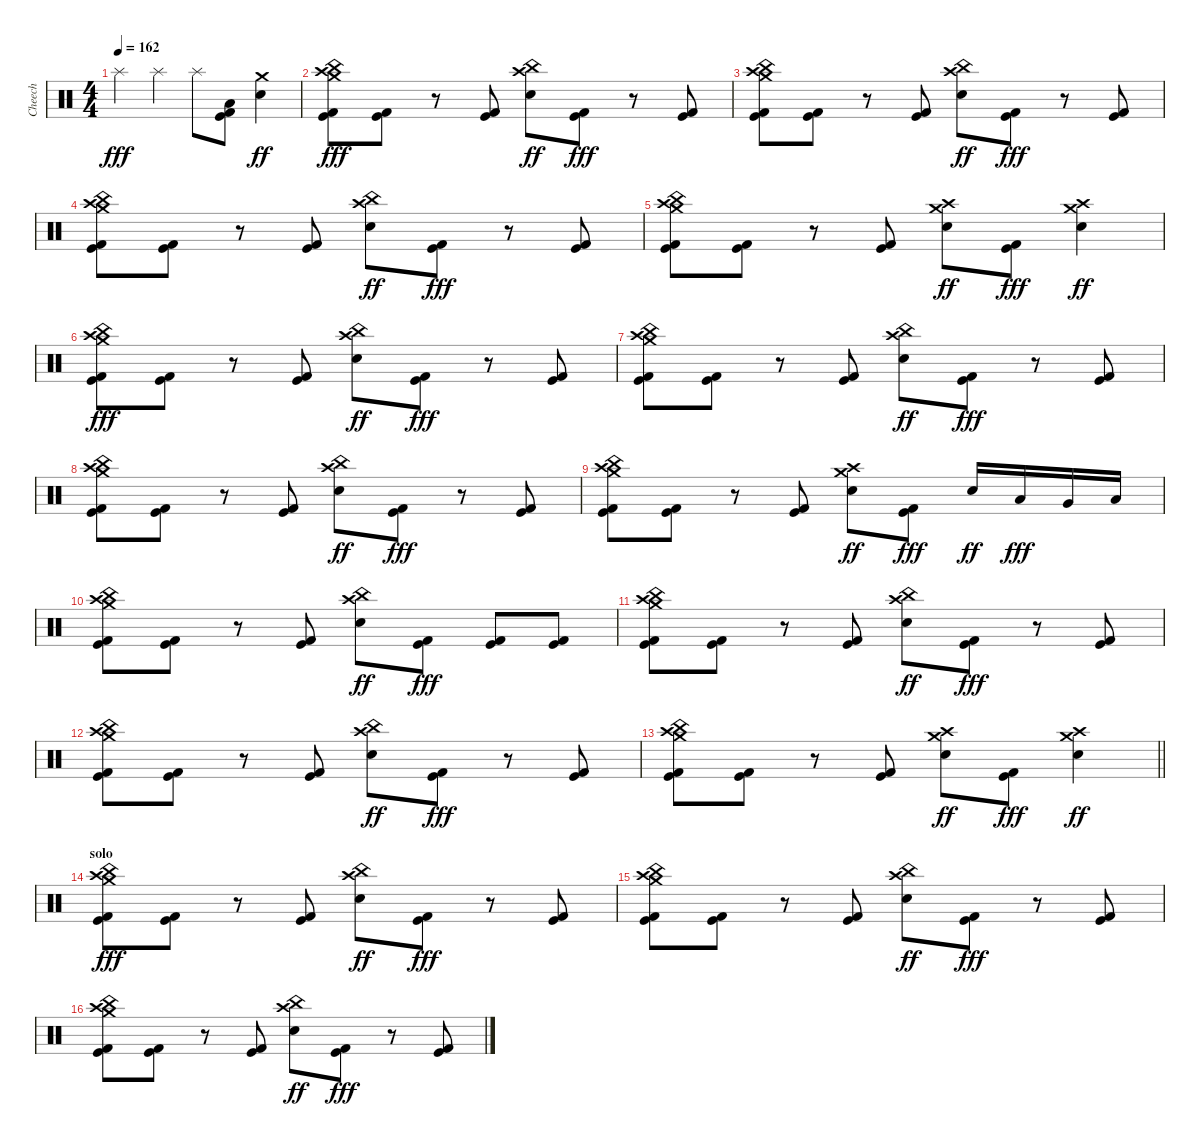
\track ("Cheech" "Cheech") {instrument percussion}
\staff {score}
\articulation defaults
\ts (4 4)
\tempo 162
\clef neutral
\ks c "Splash (hit)".4{dy fff} "Splash (hit)".4 "Splash (hit)".8
("Kick (hit) 2" "Low Floor Tom (hit)" "Kick (hit)").8 ("Crash medium (hit)" "Electric Snare (hit)").4{dy ff} |
("China (hit)" "Crash high (hit)" "Crash medium (hit)" "Kick (hit) 2" "Kick (hit)").8{dy fff} ("Kick (hit) 2" "Kick (hit)").8 r.8 ("Kick (hit) 2" "Kick (hit)").8 ("China (hit)" "Crash high (hit)" "Electric Snare (hit)").8{dy ff} ("Kick (hit) 2" "Kick (hit)").8{dy fff} r.8 ("Kick (hit) 2" "Kick (hit)").8 |
("China (hit)" "Crash high (hit)" "Crash medium (hit)" "Kick (hit) 2" "Kick (hit)").8 ("Kick (hit) 2" "Kick (hit)").8 r.8 ("Kick (hit) 2" "Kick (hit)").8 ("China (hit)" "Crash high (hit)" "Electric Snare (hit)").8{dy ff} ("Kick (hit) 2" "Kick (hit)").8{dy fff} r.8 ("Kick (hit) 2" "Kick (hit)").8 |
("China (hit)" "Crash high (hit)" "Crash medium (hit)" "Kick (hit) 2" "Kick (hit)").8 ("Kick (hit) 2" "Kick (hit)").8 r.8 ("Kick (hit) 2" "Kick (hit)").8 ("China (hit)" "Crash high (hit)" "Electric Snare (hit)").8{dy ff} ("Kick (hit) 2" "Kick (hit)").8{dy fff} r.8 ("Kick (hit) 2" "Kick (hit)").8 |
("China (hit)" "Crash high (hit)" "Crash medium (hit)" "Kick (hit) 2" "Kick (hit)").8 ("Kick (hit) 2" "Kick (hit)").8 r.8 ("Kick (hit) 2" "Kick (hit)").8 ("Crash medium (hit)" "Crash high (hit)" "Electric Snare (hit)").8{dy ff} ("Kick (hit) 2" "Kick (hit)").8{dy fff} ("Crash medium (hit)" "Crash high (hit)" "Electric Snare (hit)").4{dy ff} |
("China (hit)" "Crash high (hit)" "Crash medium (hit)" "Kick (hit) 2" "Kick (hit)").8{dy fff} ("Kick (hit) 2" "Kick (hit)").8 r.8 ("Kick (hit) 2" "Kick (hit)").8 ("China (hit)" "Crash high (hit)" "Electric Snare (hit)").8{dy ff} ("Kick (hit) 2" "Kick (hit)").8{dy fff} r.8 ("Kick (hit) 2" "Kick (hit)").8 |
("China (hit)" "Crash high (hit)" "Crash medium (hit)" "Kick (hit) 2" "Kick (hit)").8 ("Kick (hit) 2" "Kick (hit)").8 r.8 ("Kick (hit) 2" "Kick (hit)").8 ("China (hit)" "Crash high (hit)" "Electric Snare (hit)").8{dy ff} ("Kick (hit) 2" "Kick (hit)").8{dy fff} r.8 ("Kick (hit) 2" "Kick (hit)").8 |
("China (hit)" "Crash high (hit)" "Crash medium (hit)" "Kick (hit) 2" "Kick (hit)").8 ("Kick (hit) 2" "Kick (hit)").8 r.8 ("Kick (hit) 2" "Kick (hit)").8 ("China (hit)" "Crash high (hit)" "Electric Snare (hit)").8{dy ff} ("Kick (hit) 2" "Kick (hit)").8{dy fff} r.8 ("Kick (hit) 2" "Kick (hit)").8 |
("China (hit)" "Crash high (hit)" "Crash medium (hit)" "Kick (hit) 2" "Kick (hit)").8 ("Kick (hit) 2" "Kick (hit)").8 r.8 ("Kick (hit) 2" "Kick (hit)").8 ("Crash medium (hit)" "Crash high (hit)" "Electric Snare (hit)").8{dy ff} ("Kick (hit) 2" "Kick (hit)").8{dy fff} "Electric Snare (hit)".16{dy ff} "Low Tom (hit)".16{dy fff} "Very Low Tom (hit)".16 "Low Floor Tom (hit)".16 |
("China (hit)" "Crash high (hit)" "Crash medium (hit)" "Kick (hit) 2" "Kick (hit)").8 ("Kick (hit) 2" "Kick (hit)").8 r.8 ("Kick (hit) 2" "Kick (hit)").8 ("China (hit)" "Crash high (hit)" "Electric Snare (hit)").8{dy ff} ("Kick (hit) 2" "Kick (hit)").8{dy fff} ("Kick (hit) 2" "Kick (hit)").8 ("Kick (hit) 2" "Kick (hit)").8 |
("China (hit)" "Crash high (hit)" "Crash medium (hit)" "Kick (hit) 2" "Kick (hit)").8 ("Kick (hit) 2" "Kick (hit)").8 r.8 ("Kick (hit) 2" "Kick (hit)").8 ("China (hit)" "Crash high (hit)" "Electric Snare (hit)").8{dy ff} ("Kick (hit) 2" "Kick (hit)").8{dy fff} r.8 ("Kick (hit) 2" "Kick (hit)").8 |
("China (hit)" "Crash high (hit)" "Crash medium (hit)" "Kick (hit) 2" "Kick (hit)").8 ("Kick (hit) 2" "Kick (hit)").8 r.8 ("Kick (hit) 2" "Kick (hit)").8 ("China (hit)" "Crash high (hit)" "Electric Snare (hit)").8{dy ff} ("Kick (hit) 2" "Kick (hit)").8{dy fff} r.8 ("Kick (hit) 2" "Kick (hit)").8 |
\barLineRight lightlight
("China (hit)" "Crash high (hit)" "Crash medium (hit)" "Kick (hit) 2" "Kick (hit)").8 ("Kick (hit) 2" "Kick (hit)").8 r.8 ("Kick (hit) 2" "Kick (hit)").8 ("Crash medium (hit)" "Crash high (hit)" "Electric Snare (hit)").8{dy ff} ("Kick (hit) 2" "Kick (hit)").8{dy fff} ("Crash medium (hit)" "Crash high (hit)" "Electric Snare (hit)").4{dy ff} |
\section ("" "solo")
("China (hit)" "Crash high (hit)" "Crash medium (hit)" "Kick (hit) 2" "Kick (hit)").8{dy fff} ("Kick (hit) 2" "Kick (hit)").8 r.8 ("Kick (hit) 2" "Kick (hit)").8 ("China (hit)" "Crash high (hit)" "Electric Snare (hit)").8{dy ff} ("Kick (hit) 2" "Kick (hit)").8{dy fff} r.8 ("Kick (hit) 2" "Kick (hit)").8 |
("China (hit)" "Crash high (hit)" "Crash medium (hit)" "Kick (hit) 2" "Kick (hit)").8 ("Kick (hit) 2" "Kick (hit)").8 r.8 ("Kick (hit) 2" "Kick (hit)").8 ("China (hit)" "Crash high (hit)" "Electric Snare (hit)").8{dy ff} ("Kick (hit) 2" "Kick (hit)").8{dy fff} r.8 ("Kick (hit) 2" "Kick (hit)").8 |
("China (hit)" "Crash high (hit)" "Crash medium (hit)" "Kick (hit) 2" "Kick (hit)").8 ("Kick (hit) 2" "Kick (hit)").8 r.8 ("Kick (hit) 2" "Kick (hit)").8 ("China (hit)" "Crash high (hit)" "Electric Snare (hit)").8{dy ff} ("Kick (hit) 2" "Kick (hit)").8{dy fff} r.8 ("Kick (hit) 2" "Kick (hit)").8
